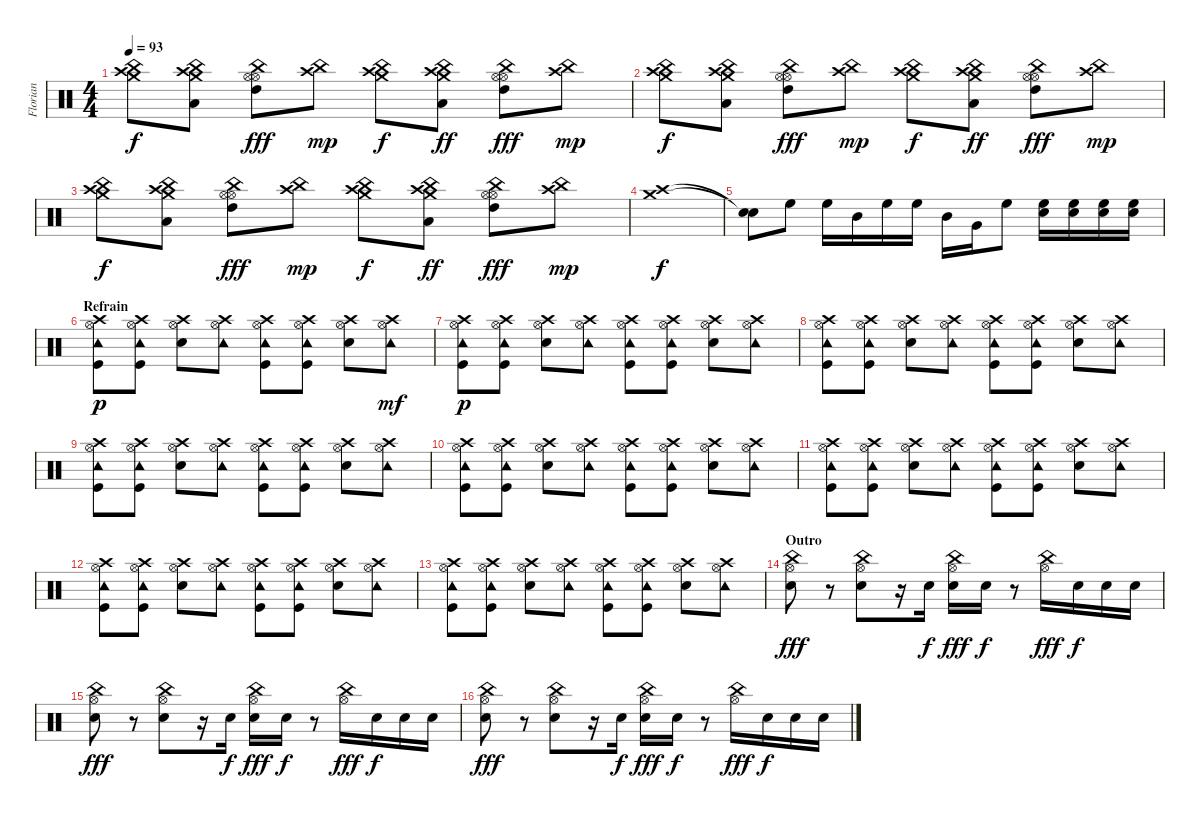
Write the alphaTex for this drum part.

\track ("Florian" "Florian") {instrument percussion}
\staff {score}
\articulation defaults
\ts (4 4)
\tempo 93
\clef neutral
\ks c
("Crash high (hit)" "Crash medium (hit)" "China (hit)").8{dy f} ("Crash high (hit)" "Crash medium (hit)" "Low Tom (hit)" "China (hit)").8 ("Hi-Hat (open)" "Hi-Hat (open)" "High Tom (hit)" "China (hit)").8{dy fff} ("Crash high (hit)" "China (hit)").8{dy mp} ("Crash high (hit)" "Crash medium (hit)" "China (hit)").8{dy f} ("Crash high (hit)" "Crash medium (hit)" "Low Tom (hit)" "China (hit)").8{dy ff} ("Hi-Hat (open)" "Hi-Hat (open)" "High Tom (hit)" "China (hit)").8{dy fff} ("Crash high (hit)" "China (hit)").8{dy mp} |
("Crash high (hit)" "Crash medium (hit)" "China (hit)").8{dy f} ("Crash high (hit)" "Crash medium (hit)" "Low Tom (hit)" "China (hit)").8 ("Hi-Hat (open)" "Hi-Hat (open)" "High Tom (hit)" "China (hit)").8{dy fff} ("Crash high (hit)" "China (hit)").8{dy mp} ("Crash high (hit)" "Crash medium (hit)" "China (hit)").8{dy f} ("Crash high (hit)" "Crash medium (hit)" "Low Tom (hit)" "China (hit)").8{dy ff} ("Hi-Hat (open)" "Hi-Hat (open)" "High Tom (hit)" "China (hit)").8{dy fff} ("Crash high (hit)" "China (hit)").8{dy mp} |
("Crash high (hit)" "Crash medium (hit)" "China (hit)").8{dy f} ("Crash high (hit)" "Crash medium (hit)" "Low Tom (hit)" "China (hit)").8 ("Hi-Hat (open)" "Hi-Hat (open)" "High Tom (hit)" "China (hit)").8{dy fff} ("Crash high (hit)" "China (hit)").8{dy mp} ("Crash high (hit)" "Crash medium (hit)" "China (hit)").8{dy f} ("Crash high (hit)" "Crash medium (hit)" "Low Tom (hit)" "China (hit)").8{dy ff} ("Hi-Hat (open)" "Hi-Hat (open)" "High Tom (hit)" "China (hit)").8{dy fff} ("Crash high (hit)" "China (hit)").8{dy mp} |
("Crash high (hit)" "Crash medium (hit)").1{dy f} |
("Snare (hit)"{t} "Snare (hit)"{t}).8 "High Floor Tom (hit)".8 "High Floor Tom (hit)".16 "Mid Tom (hit)".16 "High Floor Tom (hit)".16 "High Floor Tom (hit)".16 "Mid Tom (hit)".16 "Very Low Tom (hit)".16 "High Floor Tom (hit)".8 ("High Floor Tom (hit)" "Snare (hit) 2").16 ("High Floor Tom (hit)" "Snare (hit) 2").16 ("High Floor Tom (hit)" "Snare (hit) 2").16 ("High Floor Tom (hit)" "Snare (hit) 2").16 |
\section ("" "Refrain")
("Crash high (hit)" "Hi-Hat (open)" "Tambourine (hit)" "Kick (hit)").8{dy p volume 16} ("Crash high (hit)" "Hi-Hat (open)" "Tambourine (hit)" "Kick (hit)").8 ("Crash high (hit)" "Hi-Hat (open)" "Snare (hit) 2").8 ("Crash high (hit)" "Hi-Hat (open)" "Tambourine (hit)").8 ("Crash high (hit)" "Hi-Hat (open)" "Tambourine (hit)" "Kick (hit)").8 ("Crash high (hit)" "Hi-Hat (open)" "Tambourine (hit)" "Kick (hit)").8 ("Crash high (hit)" "Hi-Hat (open)" "Snare (hit) 2").8 ("Crash high (hit)" "Hi-Hat (open)" "Tambourine (hit)").8{dy mf} |
("Crash high (hit)" "Hi-Hat (open)" "Tambourine (hit)" "Kick (hit)").8{dy p} ("Crash high (hit)" "Hi-Hat (open)" "Tambourine (hit)" "Kick (hit)").8 ("Crash high (hit)" "Hi-Hat (open)" "Snare (hit) 2").8 ("Crash high (hit)" "Hi-Hat (open)" "Tambourine (hit)").8 ("Crash high (hit)" "Hi-Hat (open)" "Tambourine (hit)" "Kick (hit)").8 ("Crash high (hit)" "Hi-Hat (open)" "Tambourine (hit)" "Kick (hit)").8 ("Crash high (hit)" "Hi-Hat (open)" "Snare (hit) 2").8 ("Crash high (hit)" "Hi-Hat (open)" "Tambourine (hit)").8 |
("Crash high (hit)" "Hi-Hat (open)" "Tambourine (hit)" "Kick (hit)").8 ("Crash high (hit)" "Hi-Hat (open)" "Tambourine (hit)" "Kick (hit)").8 ("Crash high (hit)" "Hi-Hat (open)" "Snare (hit) 2").8 ("Crash high (hit)" "Hi-Hat (open)" "Tambourine (hit)").8 ("Crash high (hit)" "Hi-Hat (open)" "Tambourine (hit)" "Kick (hit)").8 ("Crash high (hit)" "Hi-Hat (open)" "Tambourine (hit)" "Kick (hit)").8 ("Crash high (hit)" "Hi-Hat (open)" "Snare (hit) 2").8 ("Crash high (hit)" "Hi-Hat (open)" "Tambourine (hit)").8 |
("Crash high (hit)" "Hi-Hat (open)" "Tambourine (hit)" "Kick (hit)").8 ("Crash high (hit)" "Hi-Hat (open)" "Tambourine (hit)" "Kick (hit)").8 ("Crash high (hit)" "Hi-Hat (open)" "Snare (hit) 2").8 ("Crash high (hit)" "Hi-Hat (open)" "Tambourine (hit)").8 ("Crash high (hit)" "Hi-Hat (open)" "Tambourine (hit)" "Kick (hit)").8 ("Crash high (hit)" "Hi-Hat (open)" "Tambourine (hit)" "Kick (hit)").8 ("Crash high (hit)" "Hi-Hat (open)" "Snare (hit) 2").8 ("Crash high (hit)" "Hi-Hat (open)" "Tambourine (hit)").8 |
("Crash high (hit)" "Hi-Hat (open)" "Tambourine (hit)" "Kick (hit)").8 ("Crash high (hit)" "Hi-Hat (open)" "Tambourine (hit)" "Kick (hit)").8 ("Crash high (hit)" "Hi-Hat (open)" "Snare (hit) 2").8 ("Crash high (hit)" "Hi-Hat (open)" "Tambourine (hit)").8 ("Crash high (hit)" "Hi-Hat (open)" "Tambourine (hit)" "Kick (hit)").8 ("Crash high (hit)" "Hi-Hat (open)" "Tambourine (hit)" "Kick (hit)").8 ("Crash high (hit)" "Hi-Hat (open)" "Snare (hit) 2").8 ("Crash high (hit)" "Hi-Hat (open)" "Tambourine (hit)").8 |
("Crash high (hit)" "Hi-Hat (open)" "Tambourine (hit)" "Kick (hit)").8 ("Crash high (hit)" "Hi-Hat (open)" "Tambourine (hit)" "Kick (hit)").8 ("Crash high (hit)" "Hi-Hat (open)" "Snare (hit) 2").8 ("Crash high (hit)" "Hi-Hat (open)" "Tambourine (hit)").8 ("Crash high (hit)" "Hi-Hat (open)" "Tambourine (hit)" "Kick (hit)").8 ("Crash high (hit)" "Hi-Hat (open)" "Tambourine (hit)" "Kick (hit)").8 ("Crash high (hit)" "Hi-Hat (open)" "Snare (hit) 2").8 ("Crash high (hit)" "Hi-Hat (open)" "Tambourine (hit)").8 |
("Crash high (hit)" "Hi-Hat (open)" "Tambourine (hit)" "Kick (hit)").8 ("Crash high (hit)" "Hi-Hat (open)" "Tambourine (hit)" "Kick (hit)").8 ("Crash high (hit)" "Hi-Hat (open)" "Snare (hit) 2").8 ("Crash high (hit)" "Hi-Hat (open)" "Tambourine (hit)").8 ("Crash high (hit)" "Hi-Hat (open)" "Tambourine (hit)" "Kick (hit)").8 ("Crash high (hit)" "Hi-Hat (open)" "Tambourine (hit)" "Kick (hit)").8 ("Crash high (hit)" "Hi-Hat (open)" "Snare (hit) 2").8 ("Crash high (hit)" "Hi-Hat (open)" "Tambourine (hit)").8 |
("Crash high (hit)" "Hi-Hat (open)" "Tambourine (hit)" "Kick (hit)").8 ("Crash high (hit)" "Hi-Hat (open)" "Tambourine (hit)" "Kick (hit)").8 ("Crash high (hit)" "Hi-Hat (open)" "Snare (hit) 2").8 ("Crash high (hit)" "Hi-Hat (open)" "Tambourine (hit)").8 ("Crash high (hit)" "Hi-Hat (open)" "Tambourine (hit)" "Kick (hit)").8 ("Crash high (hit)" "Hi-Hat (open)" "Tambourine (hit)" "Kick (hit)").8 ("Crash high (hit)" "Hi-Hat (open)" "Snare (hit) 2").8 ("Crash high (hit)" "Hi-Hat (open)" "Tambourine (hit)").8 |
\section ("" "Outro")
("Hi-Hat (open)" "China (hit)" "Electric Snare (hit)").8{dy fff volume 16} r.8 ("Hi-Hat (open)" "China (hit)" "Snare (hit) 2").8 r.16 "Snare (hit) 2".16{dy f} ("Hi-Hat (open)" "China (hit)" "Electric Snare (hit)").16{dy fff} "Electric Snare (hit)".16{dy f} r.8 ("Hi-Hat (open)" "China (hit)").16{dy fff} "Snare (hit) 2".16{dy f} "Electric Snare (hit)".16 "Electric Snare (hit)".16 |
("Hi-Hat (open)" "China (hit)" "Electric Snare (hit)").8{dy fff} r.8 ("Hi-Hat (open)" "China (hit)" "Snare (hit) 2").8 r.16 "Snare (hit) 2".16{dy f} ("Hi-Hat (open)" "China (hit)" "Electric Snare (hit)").16{dy fff} "Electric Snare (hit)".16{dy f} r.8 ("Hi-Hat (open)" "China (hit)").16{dy fff} "Snare (hit) 2".16{dy f} "Electric Snare (hit)".16 "Electric Snare (hit)".16 |
("Hi-Hat (open)" "China (hit)" "Electric Snare (hit)").8{dy fff} r.8 ("Hi-Hat (open)" "China (hit)" "Snare (hit) 2").8 r.16 "Snare (hit) 2".16{dy f} ("Hi-Hat (open)" "China (hit)" "Electric Snare (hit)").16{dy fff} "Electric Snare (hit)".16{dy f} r.8 ("Hi-Hat (open)" "China (hit)").16{dy fff} "Snare (hit) 2".16{dy f} "Electric Snare (hit)".16 "Electric Snare (hit)".16
